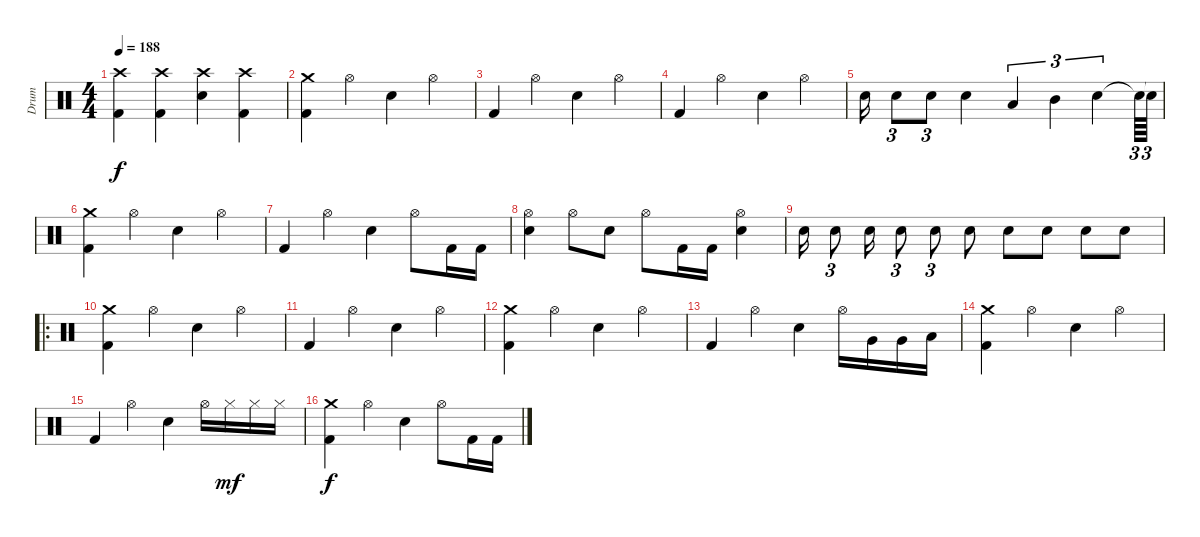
\track ("Drum" "Drum") {instrument percussion}
\staff {score}
\articulation defaults
\ts (4 4)
\tempo 188
\clef neutral
\ks c
("Kick (hit) 2" "Crash high (hit)").4{dy f} ("Kick (hit) 2" "Crash high (hit)").4 ("Snare (hit) 2" "Crash high (hit)").4 ("Kick (hit) 2" "Crash high (hit)").4 |
("Kick (hit) 2" "Crash medium (hit)").4 "Hi-Hat (open)".4 "Snare (hit) 2".4 "Hi-Hat (open)".4 |
"Kick (hit) 2".4 "Hi-Hat (open)".4 "Snare (hit) 2".4 "Hi-Hat (open)".4 |
"Kick (hit) 2".4 "Hi-Hat (open)".4 "Snare (hit) 2".4 "Hi-Hat (open)".4 |
"Snare (hit) 2".16 "Snare (hit) 2".8{tu (3 2)} "Snare (hit) 2".8{tu (3 2)} "Snare (hit) 2".4 "Low Tom (hit)".4{tu (3 2)} "Mid Tom (hit)".4{tu (3 2)} "Snare (hit) 2".4{tu (3 2)} "Snare (hit)"{t}.64{tu (3 2)} "Snare (hit)"{t}.64{tu (3 2)} |
("Kick (hit) 2" "Crash medium (hit)").4 "Hi-Hat (open)".4 "Snare (hit) 2".4 "Hi-Hat (open)".4 |
"Kick (hit) 2".4 "Hi-Hat (open)".4 "Snare (hit) 2".4 "Hi-Hat (open)".8 "Kick (hit) 2".16 "Kick (hit) 2".16 |
("Snare (hit) 2" "Hi-Hat (open)").4 "Hi-Hat (open)".8 "Snare (hit) 2".8 "Hi-Hat (open)".8 "Kick (hit) 2".16 "Kick (hit) 2".16 ("Snare (hit) 2" "Hi-Hat (open)").4 |
"Snare (hit) 2".16 "Snare (hit) 2".8{tu (3 2)} "Snare (hit) 2".16 "Snare (hit) 2".8{tu (3 2)} "Snare (hit) 2".8{tu (3 2)} "Snare (hit) 2".8 "Snare (hit) 2".8 "Snare (hit) 2".8 "Snare (hit) 2".8 "Snare (hit) 2".8 |
\ro
("Kick (hit) 2" "Crash medium (hit)").4 "Hi-Hat (open)".4 "Snare (hit) 2".4 "Hi-Hat (open)".4 |
"Kick (hit) 2".4 "Hi-Hat (open)".4 "Snare (hit) 2".4 "Hi-Hat (open)".4 |
("Kick (hit) 2" "Crash medium (hit)").4 "Hi-Hat (open)".4 "Snare (hit) 2".4 "Hi-Hat (open)".4 |
"Kick (hit) 2".4 "Hi-Hat (open)".4 "Snare (hit) 2".4 "Hi-Hat (open)".16 "Very Low Tom (hit)".16 "Very Low Tom (hit)".16 "Low Floor Tom (hit)".16 |
("Kick (hit) 2" "Crash medium (hit)").4 "Hi-Hat (open)".4 "Snare (hit) 2".4 "Hi-Hat (open)".4 |
"Kick (hit) 2".4 "Hi-Hat (open)".4 "Snare (hit) 2".4 "Hi-Hat (open)".16 "Hi-Hat (closed)".16{dy mf} "Hi-Hat (closed)".16 "Hi-Hat (closed)".16 |
("Kick (hit) 2" "Crash medium (hit)").4{dy f} "Hi-Hat (open)".4 "Snare (hit) 2".4 "Hi-Hat (open)".8 "Kick (hit) 2".16 "Kick (hit) 2".16
